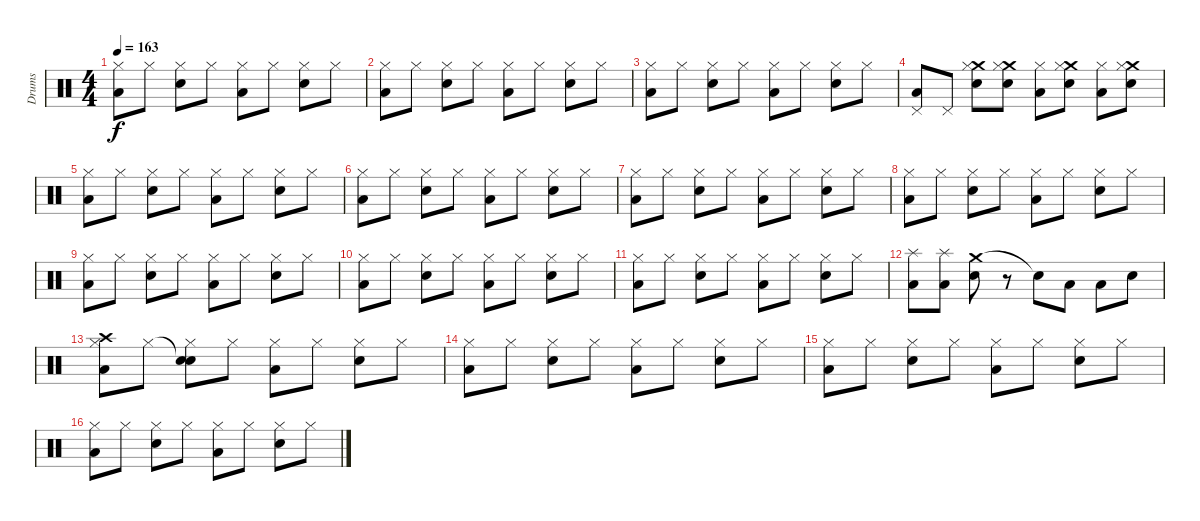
\track ("Drums" "Drums") {instrument percussion}
\staff {score}
\articulation defaults
\ts (4 4)
\tempo 163
\clef neutral
\ks c
("Low Tom (hit)" "Hi-Hat (closed)").8{dy f} "Hi-Hat (closed)".8 ("Snare (hit) 2" "Hi-Hat (closed)").8 "Hi-Hat (closed)".8 ("Low Tom (hit)" "Hi-Hat (closed)").8 "Hi-Hat (closed)".8 ("Snare (hit) 2" "Hi-Hat (closed)").8 "Hi-Hat (closed)".8 |
("Low Tom (hit)" "Hi-Hat (closed)").8 "Hi-Hat (closed)".8 ("Snare (hit) 2" "Hi-Hat (closed)").8 "Hi-Hat (closed)".8 ("Low Tom (hit)" "Hi-Hat (closed)").8 "Hi-Hat (closed)".8 ("Snare (hit) 2" "Hi-Hat (closed)").8 "Hi-Hat (closed)".8 |
("Low Tom (hit)" "Hi-Hat (closed)").8 "Hi-Hat (closed)".8 ("Snare (hit) 2" "Hi-Hat (closed)").8 "Hi-Hat (closed)".8 ("Low Tom (hit)" "Hi-Hat (closed)").8 "Hi-Hat (closed)".8 ("Snare (hit) 2" "Hi-Hat (closed)").8 "Hi-Hat (closed)".8 |
("Low Tom (hit)" "Pedal Hi-Hat (hit)").8 "Pedal Hi-Hat (hit)".8 ("Crash medium (hit)" "Snare (hit) 2" "Hi-Hat (closed)").8 ("Crash medium (hit)" "Snare (hit) 2" "Hi-Hat (closed)").8 ("Low Tom (hit)" "Hi-Hat (closed)").8 ("Crash medium (hit)" "Snare (hit) 2" "Hi-Hat (closed)").8 ("Low Tom (hit)" "Hi-Hat (closed)").8 ("Crash medium (hit)" "Snare (hit) 2" "Hi-Hat (closed)").8 |
("Low Tom (hit)" "Hi-Hat (closed)").8 "Hi-Hat (closed)".8 ("Snare (hit) 2" "Hi-Hat (closed)").8 "Hi-Hat (closed)".8 ("Low Tom (hit)" "Hi-Hat (closed)").8 "Hi-Hat (closed)".8 ("Snare (hit) 2" "Hi-Hat (closed)").8 "Hi-Hat (closed)".8 |
("Low Tom (hit)" "Hi-Hat (closed)").8 "Hi-Hat (closed)".8 ("Snare (hit) 2" "Hi-Hat (closed)").8 "Hi-Hat (closed)".8 ("Low Tom (hit)" "Hi-Hat (closed)").8 "Hi-Hat (closed)".8 ("Snare (hit) 2" "Hi-Hat (closed)").8 "Hi-Hat (closed)".8 |
("Low Tom (hit)" "Hi-Hat (closed)").8 "Hi-Hat (closed)".8 ("Snare (hit) 2" "Hi-Hat (closed)").8 "Hi-Hat (closed)".8 ("Low Tom (hit)" "Hi-Hat (closed)").8 "Hi-Hat (closed)".8 ("Snare (hit) 2" "Hi-Hat (closed)").8 "Hi-Hat (closed)".8 |
("Low Tom (hit)" "Hi-Hat (closed)").8 "Hi-Hat (closed)".8 ("Snare (hit) 2" "Hi-Hat (closed)").8 "Hi-Hat (closed)".8 ("Low Tom (hit)" "Hi-Hat (closed)").8 "Hi-Hat (closed)".8 ("Snare (hit) 2" "Hi-Hat (closed)").8 "Hi-Hat (closed)".8 |
("Low Tom (hit)" "Hi-Hat (closed)").8 "Hi-Hat (closed)".8 ("Snare (hit) 2" "Hi-Hat (closed)").8 "Hi-Hat (closed)".8 ("Low Tom (hit)" "Hi-Hat (closed)").8 "Hi-Hat (closed)".8 ("Snare (hit) 2" "Hi-Hat (closed)").8 "Hi-Hat (closed)".8 |
("Low Tom (hit)" "Hi-Hat (closed)").8 "Hi-Hat (closed)".8 ("Snare (hit) 2" "Hi-Hat (closed)").8 "Hi-Hat (closed)".8 ("Low Tom (hit)" "Hi-Hat (closed)").8 "Hi-Hat (closed)".8 ("Snare (hit) 2" "Hi-Hat (closed)").8 "Hi-Hat (closed)".8 |
("Low Tom (hit)" "Hi-Hat (closed)").8 "Hi-Hat (closed)".8 ("Snare (hit) 2" "Hi-Hat (closed)").8 "Hi-Hat (closed)".8 ("Low Tom (hit)" "Hi-Hat (closed)").8 "Hi-Hat (closed)".8 ("Snare (hit) 2" "Hi-Hat (closed)").8 "Hi-Hat (closed)".8 |
("Splash (hit)" "Low Tom (hit)").8 ("Splash (hit)" "Low Tom (hit)").8 ("Crash medium (hit)" "Snare (hit) 2").8 r.8 "Snare (hit)"{t}.8 "Low Tom (hit)".8 "Low Tom (hit)".8 "Snare (hit) 2".8 |
("Crash high (hit)" "Low Tom (hit)" "Hi-Hat (closed)").8 "Hi-Hat (closed)".8 ("Snare (hit)"{t} "Snare (hit) 2" "Hi-Hat (closed)").8 "Hi-Hat (closed)".8 ("Low Tom (hit)" "Hi-Hat (closed)").8 "Hi-Hat (closed)".8 ("Snare (hit) 2" "Hi-Hat (closed)").8 "Hi-Hat (closed)".8 |
("Low Tom (hit)" "Hi-Hat (closed)").8 "Hi-Hat (closed)".8 ("Snare (hit) 2" "Hi-Hat (closed)").8 "Hi-Hat (closed)".8 ("Low Tom (hit)" "Hi-Hat (closed)").8 "Hi-Hat (closed)".8 ("Snare (hit) 2" "Hi-Hat (closed)").8 "Hi-Hat (closed)".8 |
("Low Tom (hit)" "Hi-Hat (closed)").8 "Hi-Hat (closed)".8 ("Snare (hit) 2" "Hi-Hat (closed)").8 "Hi-Hat (closed)".8 ("Low Tom (hit)" "Hi-Hat (closed)").8 "Hi-Hat (closed)".8 ("Snare (hit) 2" "Hi-Hat (closed)").8 "Hi-Hat (closed)".8 |
("Low Tom (hit)" "Hi-Hat (closed)").8 "Hi-Hat (closed)".8 ("Snare (hit) 2" "Hi-Hat (closed)").8 "Hi-Hat (closed)".8 ("Low Tom (hit)" "Hi-Hat (closed)").8 "Hi-Hat (closed)".8 ("Snare (hit) 2" "Hi-Hat (closed)").8 "Hi-Hat (closed)".8
